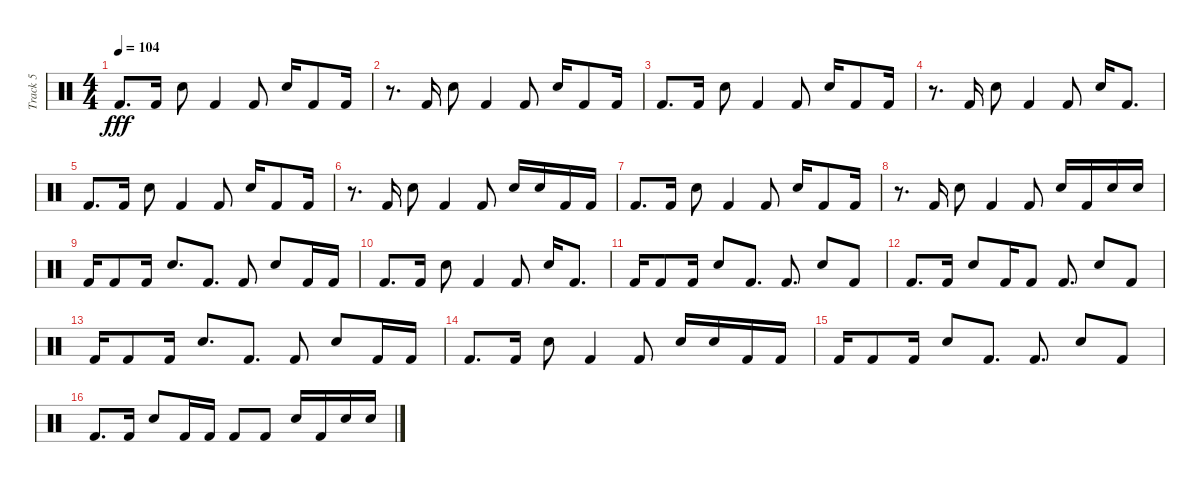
\track ("Track 5" "Track 5") {instrument percussion}
\staff {score}
\articulation defaults
\ts (4 4)
\tempo 104
\clef neutral
\ks c "Kick (hit) 2".8{d dy fff} "Kick (hit) 2".16 "Electric Snare (hit)".8 "Kick (hit) 2".4 "Kick (hit) 2".8 "Electric Snare (hit)".16 "Kick (hit) 2".8 "Kick (hit) 2".16
|
r.8{d} "Kick (hit) 2".16 "Electric Snare (hit)".8 "Kick (hit) 2".4 "Kick (hit) 2".8 "Electric Snare (hit)".16 "Kick (hit) 2".8 "Kick (hit) 2".16 |
"Kick (hit) 2".8{d} "Kick (hit) 2".16 "Electric Snare (hit)".8 "Kick (hit) 2".4 "Kick (hit) 2".8 "Electric Snare (hit)".16 "Kick (hit) 2".8 "Kick (hit) 2".16 |
r.8{d} "Kick (hit) 2".16 "Electric Snare (hit)".8 "Kick (hit) 2".4 "Kick (hit) 2".8 "Electric Snare (hit)".16 "Kick (hit) 2".8{d} |
"Kick (hit) 2".8{d} "Kick (hit) 2".16 "Electric Snare (hit)".8 "Kick (hit) 2".4 "Kick (hit) 2".8 "Electric Snare (hit)".16 "Kick (hit) 2".8 "Kick (hit) 2".16 |
r.8{d} "Kick (hit) 2".16 "Electric Snare (hit)".8 "Kick (hit) 2".4 "Kick (hit) 2".8 "Electric Snare (hit)".16 "Electric Snare (hit)".16 "Kick (hit) 2".16 "Kick (hit) 2".16 |
"Kick (hit) 2".8{d} "Kick (hit) 2".16 "Electric Snare (hit)".8 "Kick (hit) 2".4 "Kick (hit) 2".8 "Electric Snare (hit)".16 "Kick (hit) 2".8 "Kick (hit) 2".16 |
r.8{d} "Kick (hit) 2".16 "Electric Snare (hit)".8 "Kick (hit) 2".4 "Kick (hit) 2".8 "Electric Snare (hit)".16 "Kick (hit) 2".16 "Electric Snare (hit)".16 "Electric Snare (hit)".16 |
"Kick (hit) 2".16 "Kick (hit) 2".8 "Kick (hit) 2".16 "Electric Snare (hit)".8{d} "Kick (hit) 2".8{d} "Kick (hit) 2".8 "Electric Snare (hit)".8 "Kick (hit) 2".16 "Kick (hit) 2".16 |
"Kick (hit) 2".8{d} "Kick (hit) 2".16 "Electric Snare (hit)".8 "Kick (hit) 2".4 "Kick (hit) 2".8 "Electric Snare (hit)".16 "Kick (hit) 2".8{d} |
"Kick (hit) 2".16 "Kick (hit) 2".8 "Kick (hit) 2".16 "Electric Snare (hit)".8 "Kick (hit) 2".8{d} "Kick (hit) 2".8{d} "Electric Snare (hit)".8 "Kick (hit) 2".8 |
"Kick (hit) 2".8{d} "Kick (hit) 2".16 "Electric Snare (hit)".8 "Kick (hit) 2".16 "Kick (hit) 2".8 "Kick (hit) 2".8{d} "Electric Snare (hit)".8 "Kick (hit) 2".8 |
"Kick (hit) 2".16 "Kick (hit) 2".8 "Kick (hit) 2".16 "Electric Snare (hit)".8{d} "Kick (hit) 2".8{d} "Kick (hit) 2".8 "Electric Snare (hit)".8 "Kick (hit) 2".16 "Kick (hit) 2".16 |
"Kick (hit) 2".8{d} "Kick (hit) 2".16 "Electric Snare (hit)".8 "Kick (hit) 2".4 "Kick (hit) 2".8 "Electric Snare (hit)".16 "Electric Snare (hit)".16 "Kick (hit) 2".16 "Kick (hit) 2".16 |
"Kick (hit) 2".16 "Kick (hit) 2".8 "Kick (hit) 2".16 "Electric Snare (hit)".8 "Kick (hit) 2".8{d} "Kick (hit) 2".8{d} "Electric Snare (hit)".8 "Kick (hit) 2".8 |
"Kick (hit) 2".8{d} "Kick (hit) 2".16 "Electric Snare (hit)".8 "Kick (hit) 2".16 "Kick (hit) 2".16 "Kick (hit) 2".8 "Kick (hit) 2".8 "Electric Snare (hit)".16 "Kick (hit) 2".16 "Electric Snare (hit)".16 "Electric Snare (hit)".16
